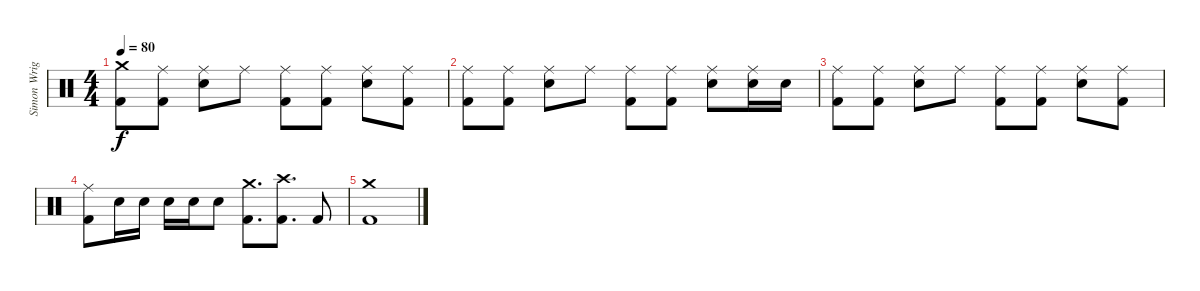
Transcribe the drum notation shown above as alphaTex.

\track ("Simon Wright" "Simon Wrig") {instrument percussion}
\staff {score}
\articulation defaults
\ts (4 4)
\tempo 80
\clef neutral
\ks c
("Crash medium (hit)" "Kick (hit) 2").8{dy f} ("Ride (middle)" "Kick (hit) 2").8 ("Ride (middle)" "Snare (hit) 2").8 "Ride (middle)".8 ("Ride (middle)" "Kick (hit) 2").8 ("Ride (middle)" "Kick (hit) 2").8 ("Ride (middle)" "Snare (hit) 2").8 ("Ride (middle)" "Kick (hit) 2").8 |
("Ride (middle)" "Kick (hit) 2").8 ("Ride (middle)" "Kick (hit) 2").8 ("Ride (middle)" "Snare (hit) 2").8 "Ride (middle)".8 ("Ride (middle)" "Kick (hit) 2").8 ("Ride (middle)" "Kick (hit) 2").8 ("Ride (middle)" "Snare (hit) 2").8 ("Ride (middle)" "Snare (hit) 2").16 "Snare (hit) 2".16 |
("Ride (middle)" "Kick (hit) 2").8 ("Ride (middle)" "Kick (hit) 2").8 ("Ride (middle)" "Snare (hit) 2").8 "Ride (middle)".8 ("Ride (middle)" "Kick (hit) 2").8 ("Ride (middle)" "Kick (hit) 2").8 ("Ride (middle)" "Snare (hit) 2").8 ("Ride (middle)" "Kick (hit) 2").8 |
("Ride (middle)" "Kick (hit) 2").8 "Snare (hit) 2".16 "Snare (hit) 2".16 "Snare (hit) 2".16 "Snare (hit) 2".16 "Snare (hit) 2".8 ("Crash medium (hit)" "Kick (hit) 2").8{d} ("Crash high (hit)" "Kick (hit) 2").8{d} "Kick (hit) 2".8 |
("Crash medium (hit)" "Kick (hit) 2").1
